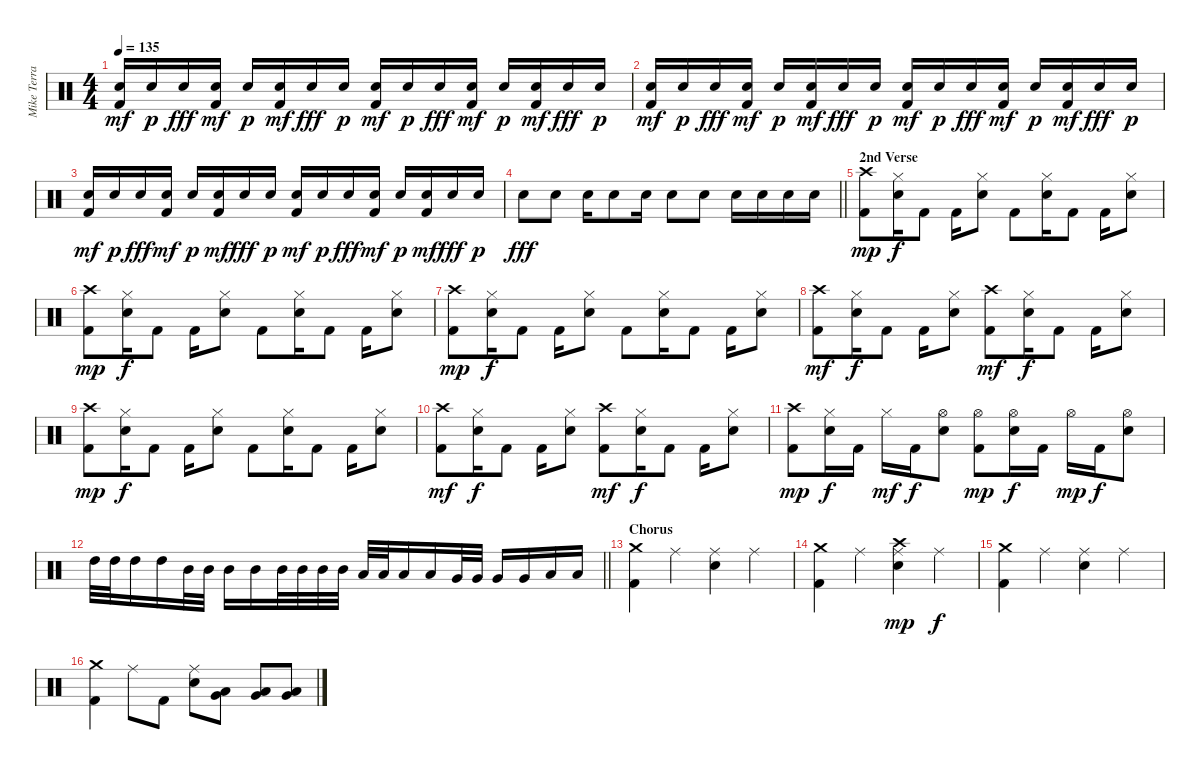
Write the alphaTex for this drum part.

\track ("Mike Terrana" "Mike Terra") {instrument percussion}
\staff {score}
\articulation defaults
\ts (4 4)
\tempo 135
\clef neutral
\ks c
("Snare (hit) 2" "Kick (hit) 2").16{dy mf} "Snare (hit) 2".16{dy p} "Snare (hit) 2".16{dy fff} ("Snare (hit) 2" "Kick (hit) 2").16{dy mf} "Snare (hit) 2".16{dy p} ("Snare (hit) 2" "Kick (hit) 2").16{dy mf} "Snare (hit) 2".16{dy fff} "Snare (hit) 2".16{dy p} ("Snare (hit) 2" "Kick (hit) 2").16{dy mf} "Snare (hit) 2".16{dy p} "Snare (hit) 2".16{dy fff} ("Snare (hit) 2" "Kick (hit) 2").16{dy mf} "Snare (hit) 2".16{dy p} ("Snare (hit) 2" "Kick (hit) 2").16{dy mf} "Snare (hit) 2".16{dy fff} "Snare (hit) 2".16{dy p} |
("Snare (hit) 2" "Kick (hit) 2").16{dy mf} "Snare (hit) 2".16{dy p} "Snare (hit) 2".16{dy fff} ("Snare (hit) 2" "Kick (hit) 2").16{dy mf} "Snare (hit) 2".16{dy p} ("Snare (hit) 2" "Kick (hit) 2").16{dy mf} "Snare (hit) 2".16{dy fff} "Snare (hit) 2".16{dy p} ("Snare (hit) 2" "Kick (hit) 2").16{dy mf} "Snare (hit) 2".16{dy p} "Snare (hit) 2".16{dy fff} ("Snare (hit) 2" "Kick (hit) 2").16{dy mf} "Snare (hit) 2".16{dy p} ("Snare (hit) 2" "Kick (hit) 2").16{dy mf} "Snare (hit) 2".16{dy fff} "Snare (hit) 2".16{dy p} |
("Snare (hit) 2" "Kick (hit) 2").16{dy mf} "Snare (hit) 2".16{dy p} "Snare (hit) 2".16{dy fff} ("Snare (hit) 2" "Kick (hit) 2").16{dy mf} "Snare (hit) 2".16{dy p} ("Snare (hit) 2" "Kick (hit) 2").16{dy mf} "Snare (hit) 2".16{dy fff} "Snare (hit) 2".16{dy p} ("Snare (hit) 2" "Kick (hit) 2").16{dy mf} "Snare (hit) 2".16{dy p} "Snare (hit) 2".16{dy fff} ("Snare (hit) 2" "Kick (hit) 2").16{dy mf} "Snare (hit) 2".16{dy p} ("Snare (hit) 2" "Kick (hit) 2").16{dy mf} "Snare (hit) 2".16{dy fff} "Snare (hit) 2".16{dy p} |
\barLineRight lightlight "Snare (hit) 2".8{dy fff} "Snare (hit) 2".8 "Snare (hit) 2".16 "Snare (hit) 2".8 "Snare (hit) 2".16 "Snare (hit) 2".8 "Snare (hit) 2".8 "Snare (hit) 2".16 "Snare (hit) 2".16 "Snare (hit) 2".16 "Snare (hit) 2".16
|
\section ("" "2nd Verse")
("Crash high (hit)" "Kick (hit) 2").8{dy mp} ("Hi-Hat (closed)" "Snare (hit) 2").16{dy f} "Kick (hit) 2".8 "Kick (hit) 2".16 ("Hi-Hat (closed)" "Snare (hit) 2").8 "Kick (hit) 2".8 ("Hi-Hat (closed)" "Snare (hit) 2").16 "Kick (hit) 2".8 "Kick (hit) 2".16 ("Hi-Hat (closed)" "Snare (hit) 2").8 |
("Crash high (hit)" "Kick (hit) 2").8{dy mp} ("Hi-Hat (closed)" "Snare (hit) 2").16{dy f} "Kick (hit) 2".8 "Kick (hit) 2".16 ("Hi-Hat (closed)" "Snare (hit) 2").8 "Kick (hit) 2".8 ("Hi-Hat (closed)" "Snare (hit) 2").16 "Kick (hit) 2".8 "Kick (hit) 2".16 ("Hi-Hat (closed)" "Snare (hit) 2").8 |
("Crash high (hit)" "Kick (hit) 2").8{dy mp} ("Hi-Hat (closed)" "Snare (hit) 2").16{dy f} "Kick (hit) 2".8 "Kick (hit) 2".16 ("Hi-Hat (closed)" "Snare (hit) 2").8 "Kick (hit) 2".8 ("Hi-Hat (closed)" "Snare (hit) 2").16 "Kick (hit) 2".8 "Kick (hit) 2".16 ("Hi-Hat (closed)" "Snare (hit) 2").8 |
("Crash high (hit)" "Kick (hit) 2").8{dy mf} ("Hi-Hat (closed)" "Snare (hit) 2").16{dy f} "Kick (hit) 2".8 "Kick (hit) 2".16 ("Hi-Hat (closed)" "Snare (hit) 2").8 ("Crash high (hit)" "Kick (hit) 2").8{dy mf} ("Hi-Hat (closed)" "Snare (hit) 2").16{dy f} "Kick (hit) 2".8 "Kick (hit) 2".16 ("Hi-Hat (closed)" "Snare (hit) 2").8 |
("Crash high (hit)" "Kick (hit) 2").8{dy mp} ("Hi-Hat (closed)" "Snare (hit) 2").16{dy f} "Kick (hit) 2".8 "Kick (hit) 2".16 ("Hi-Hat (closed)" "Snare (hit) 2").8 "Kick (hit) 2".8 ("Hi-Hat (closed)" "Snare (hit) 2").16 "Kick (hit) 2".8 "Kick (hit) 2".16 ("Hi-Hat (closed)" "Snare (hit) 2").8 |
("Crash high (hit)" "Kick (hit) 2").8{dy mf} ("Hi-Hat (closed)" "Snare (hit) 2").16{dy f} "Kick (hit) 2".8 "Kick (hit) 2".16 ("Hi-Hat (closed)" "Snare (hit) 2").8 ("Crash high (hit)" "Kick (hit) 2").8{dy mf} ("Hi-Hat (closed)" "Snare (hit) 2").16{dy f} "Kick (hit) 2".8 "Kick (hit) 2".16 ("Hi-Hat (closed)" "Snare (hit) 2").8 |
("Crash high (hit)" "Kick (hit) 2").8{dy mp} ("Hi-Hat (closed)" "Snare (hit) 2").16{dy f} "Kick (hit) 2".16 "Hi-Hat (closed)".16{dy mf} "Kick (hit) 2".16{dy f} ("Hi-Hat (open)" "Snare (hit) 2").8 ("Hi-Hat (open)" "Kick (hit) 2").8{dy mp} ("Hi-Hat (open)" "Snare (hit) 2").16{dy f} "Kick (hit) 2".16 "Hi-Hat (open)".16{dy mp} "Kick (hit) 2".16{dy f} ("Hi-Hat (open)" "Snare (hit) 2").8 |
\barLineRight lightlight "High Tom (hit)".32 "High Tom (hit)".32 "High Tom (hit)".16 "High Tom (hit)".16 "Mid Tom (hit)".32 "Mid Tom (hit)".32 "Mid Tom (hit)".16 "Mid Tom (hit)".16 "Mid Tom (hit)".32 "Mid Tom (hit)".32 "Mid Tom (hit)".32 "Mid Tom (hit)".32 "Low Tom (hit)".32 "Low Tom (hit)".32 "Low Tom (hit)".16 "Low Tom (hit)".16 "Very Low Tom (hit)".32 "Very Low Tom (hit)".32 "Very Low Tom (hit)".16 "Very Low Tom (hit)".16 "Low Floor Tom (hit)".16 "Low Floor Tom (hit)".16
|
\section ("" "Chorus")
("Crash medium (hit)" "Kick (hit) 2").4 "Ride (middle)".4 ("Ride (middle)" "Snare (hit) 2").4 "Ride (middle)".4 |
("Crash medium (hit)" "Kick (hit) 2").4 "Ride (middle)".4 ("Ride (middle)" "Crash high (hit)" "Snare (hit) 2").4{dy mp} "Ride (middle)".4{dy f} |
("Crash medium (hit)" "Kick (hit) 2").4 "Ride (middle)".4 ("Ride (middle)" "Snare (hit) 2").4 "Ride (middle)".4 |
("Crash medium (hit)" "Kick (hit) 2").4 "Ride (middle)".8 "Kick (hit) 2".8 ("Ride (middle)" "Snare (hit) 2").8 ("Low Tom (hit)" "Very Low Tom (hit)").8 ("Low Tom (hit)" "Very Low Tom (hit)").8 ("Very Low Tom (hit)" "Low Floor Tom (hit)").8
